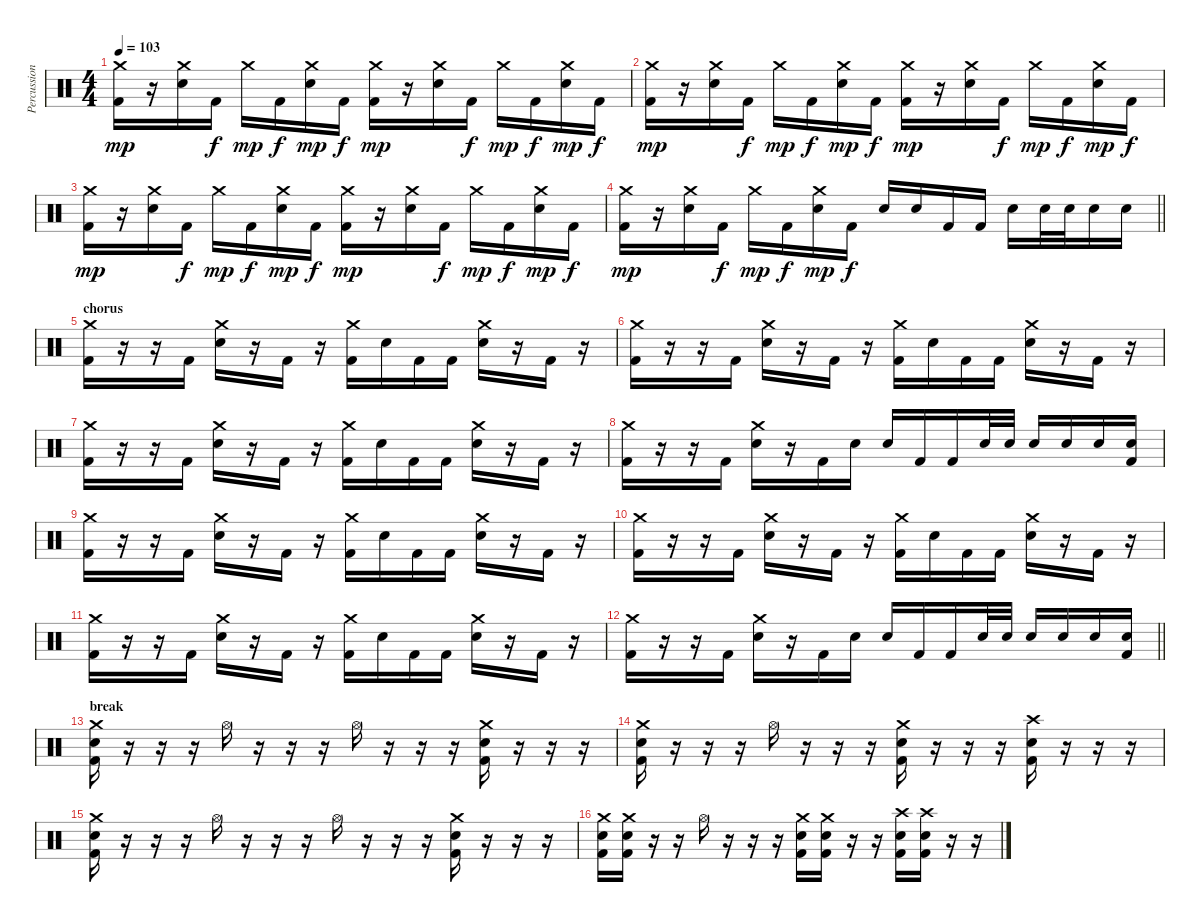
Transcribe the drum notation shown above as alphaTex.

\track ("Percussion" "Percussion") {instrument percussion}
\staff {score}
\articulation defaults
\ts (4 4)
\tempo 103
\clef neutral
\ks c
("Crash medium (hit)" "Kick (hit) 2").16{dy mp} r.16 ("Crash medium (hit)" "Electric Snare (hit)").16 "Kick (hit) 2".16{dy f} "Crash medium (hit)".16{dy mp} "Kick (hit) 2".16{dy f} ("Crash medium (hit)" "Electric Snare (hit)").16{dy mp} "Kick (hit) 2".16{dy f} ("Crash medium (hit)" "Kick (hit) 2").16{dy mp} r.16 ("Crash medium (hit)" "Electric Snare (hit)").16 "Kick (hit) 2".16{dy f} "Crash medium (hit)".16{dy mp} "Kick (hit) 2".16{dy f} ("Crash medium (hit)" "Electric Snare (hit)").16{dy mp} "Kick (hit) 2".16{dy f} |
("Crash medium (hit)" "Kick (hit) 2").16{dy mp} r.16 ("Crash medium (hit)" "Electric Snare (hit)").16 "Kick (hit) 2".16{dy f} "Crash medium (hit)".16{dy mp} "Kick (hit) 2".16{dy f} ("Crash medium (hit)" "Electric Snare (hit)").16{dy mp} "Kick (hit) 2".16{dy f} ("Crash medium (hit)" "Kick (hit) 2").16{dy mp} r.16 ("Crash medium (hit)" "Electric Snare (hit)").16 "Kick (hit) 2".16{dy f} "Crash medium (hit)".16{dy mp} "Kick (hit) 2".16{dy f} ("Crash medium (hit)" "Electric Snare (hit)").16{dy mp} "Kick (hit) 2".16{dy f} |
("Crash medium (hit)" "Kick (hit) 2").16{dy mp} r.16 ("Crash medium (hit)" "Electric Snare (hit)").16 "Kick (hit) 2".16{dy f} "Crash medium (hit)".16{dy mp} "Kick (hit) 2".16{dy f} ("Crash medium (hit)" "Electric Snare (hit)").16{dy mp} "Kick (hit) 2".16{dy f} ("Crash medium (hit)" "Kick (hit) 2").16{dy mp} r.16 ("Crash medium (hit)" "Electric Snare (hit)").16 "Kick (hit) 2".16{dy f} "Crash medium (hit)".16{dy mp} "Kick (hit) 2".16{dy f} ("Crash medium (hit)" "Electric Snare (hit)").16{dy mp} "Kick (hit) 2".16{dy f} |
\barLineRight lightlight
("Crash medium (hit)" "Kick (hit) 2").16{dy mp} r.16 ("Crash medium (hit)" "Electric Snare (hit)").16 "Kick (hit) 2".16{dy f} "Crash medium (hit)".16{dy mp} "Kick (hit) 2".16{dy f} ("Crash medium (hit)" "Electric Snare (hit)").16{dy mp} "Kick (hit) 2".16{dy f} "Electric Snare (hit)".16 "Electric Snare (hit)".16 "Kick (hit) 2".16 "Kick (hit) 2".16 "Electric Snare (hit)".16 "Electric Snare (hit)".32 "Electric Snare (hit)".32 "Electric Snare (hit)".16 "Electric Snare (hit)".16 |
\section ("" "chorus")
("Crash medium (hit)" "Kick (hit) 2").16 r.16 r.16 "Kick (hit) 2".16 ("Crash medium (hit)" "Electric Snare (hit)").16 r.16 "Kick (hit) 2".16 r.16 ("Crash medium (hit)" "Kick (hit) 2").16 "Electric Snare (hit)".16 "Kick (hit) 2".16 "Kick (hit) 2".16 ("Crash medium (hit)" "Electric Snare (hit)").16 r.16 "Kick (hit) 2".16 r.16 |
("Crash medium (hit)" "Kick (hit) 2").16 r.16 r.16 "Kick (hit) 2".16 ("Crash medium (hit)" "Electric Snare (hit)").16 r.16 "Kick (hit) 2".16 r.16 ("Crash medium (hit)" "Kick (hit) 2").16 "Electric Snare (hit)".16 "Kick (hit) 2".16 "Kick (hit) 2".16 ("Crash medium (hit)" "Electric Snare (hit)").16 r.16 "Kick (hit) 2".16 r.16 |
("Crash medium (hit)" "Kick (hit) 2").16 r.16 r.16 "Kick (hit) 2".16 ("Crash medium (hit)" "Electric Snare (hit)").16 r.16 "Kick (hit) 2".16 r.16 ("Crash medium (hit)" "Kick (hit) 2").16 "Electric Snare (hit)".16 "Kick (hit) 2".16 "Kick (hit) 2".16 ("Crash medium (hit)" "Electric Snare (hit)").16 r.16 "Kick (hit) 2".16 r.16 |
("Crash medium (hit)" "Kick (hit) 2").16 r.16 r.16 "Kick (hit) 2".16 ("Crash medium (hit)" "Electric Snare (hit)").16 r.16 "Kick (hit) 2".16 "Electric Snare (hit)".16 "Electric Snare (hit)".16 "Kick (hit) 2".16 "Kick (hit) 2".16 "Electric Snare (hit)".32 "Electric Snare (hit)".32 "Electric Snare (hit)".16 "Electric Snare (hit)".16 "Electric Snare (hit)".16 ("Electric Snare (hit)" "Kick (hit) 2").16 |
("Crash medium (hit)" "Kick (hit) 2").16 r.16 r.16 "Kick (hit) 2".16 ("Crash medium (hit)" "Electric Snare (hit)").16 r.16 "Kick (hit) 2".16 r.16 ("Crash medium (hit)" "Kick (hit) 2").16 "Electric Snare (hit)".16 "Kick (hit) 2".16 "Kick (hit) 2".16 ("Crash medium (hit)" "Electric Snare (hit)").16 r.16 "Kick (hit) 2".16 r.16 |
("Crash medium (hit)" "Kick (hit) 2").16 r.16 r.16 "Kick (hit) 2".16 ("Crash medium (hit)" "Electric Snare (hit)").16 r.16 "Kick (hit) 2".16 r.16 ("Crash medium (hit)" "Kick (hit) 2").16 "Electric Snare (hit)".16 "Kick (hit) 2".16 "Kick (hit) 2".16 ("Crash medium (hit)" "Electric Snare (hit)").16 r.16 "Kick (hit) 2".16 r.16 |
("Crash medium (hit)" "Kick (hit) 2").16 r.16 r.16 "Kick (hit) 2".16 ("Crash medium (hit)" "Electric Snare (hit)").16 r.16 "Kick (hit) 2".16 r.16 ("Crash medium (hit)" "Kick (hit) 2").16 "Electric Snare (hit)".16 "Kick (hit) 2".16 "Kick (hit) 2".16 ("Crash medium (hit)" "Electric Snare (hit)").16 r.16 "Kick (hit) 2".16 r.16 |
\barLineRight lightlight
("Crash medium (hit)" "Kick (hit) 2").16 r.16 r.16 "Kick (hit) 2".16 ("Crash medium (hit)" "Electric Snare (hit)").16 r.16 "Kick (hit) 2".16 "Electric Snare (hit)".16 "Electric Snare (hit)".16 "Kick (hit) 2".16 "Kick (hit) 2".16 "Electric Snare (hit)".32 "Electric Snare (hit)".32 "Electric Snare (hit)".16 "Electric Snare (hit)".16 "Electric Snare (hit)".16 ("Electric Snare (hit)" "Kick (hit) 2").16 |
\section ("" "break")
("Crash medium (hit)" "Electric Snare (hit)" "Kick (hit) 2").16 r.16 r.16 r.16 "Hi-Hat (open)".16 r.16 r.16 r.16 "Hi-Hat (open)".16 r.16 r.16 r.16 ("Crash medium (hit)" "Electric Snare (hit)" "Kick (hit) 2").16 r.16 r.16 r.16 |
("Crash medium (hit)" "Electric Snare (hit)" "Kick (hit) 2").16 r.16 r.16 r.16 "Hi-Hat (open)".16 r.16 r.16 r.16 ("Crash medium (hit)" "Electric Snare (hit)" "Kick (hit) 2").16 r.16 r.16 r.16 ("Crash high (hit)" "Electric Snare (hit)" "Kick (hit) 2").16 r.16 r.16 r.16 |
("Crash medium (hit)" "Electric Snare (hit)" "Kick (hit) 2").16 r.16 r.16 r.16 "Hi-Hat (open)".16 r.16 r.16 r.16 "Hi-Hat (open)".16 r.16 r.16 r.16 ("Crash medium (hit)" "Electric Snare (hit)" "Kick (hit) 2").16 r.16 r.16 r.16 |
("Crash medium (hit)" "Electric Snare (hit)" "Kick (hit) 2").16 ("Crash medium (hit)" "Electric Snare (hit)" "Kick (hit) 2").16 r.16 r.16 "Hi-Hat (open)".16 r.16 r.16 r.16 ("Crash medium (hit)" "Electric Snare (hit)" "Kick (hit) 2").16 ("Crash medium (hit)" "Kick (hit) 2" "Electric Snare (hit)").16 r.16 r.16 ("Crash high (hit)" "Electric Snare (hit)" "Kick (hit) 2").16 ("Crash high (hit)" "Electric Snare (hit)" "Kick (hit) 2").16 r.16 r.16
